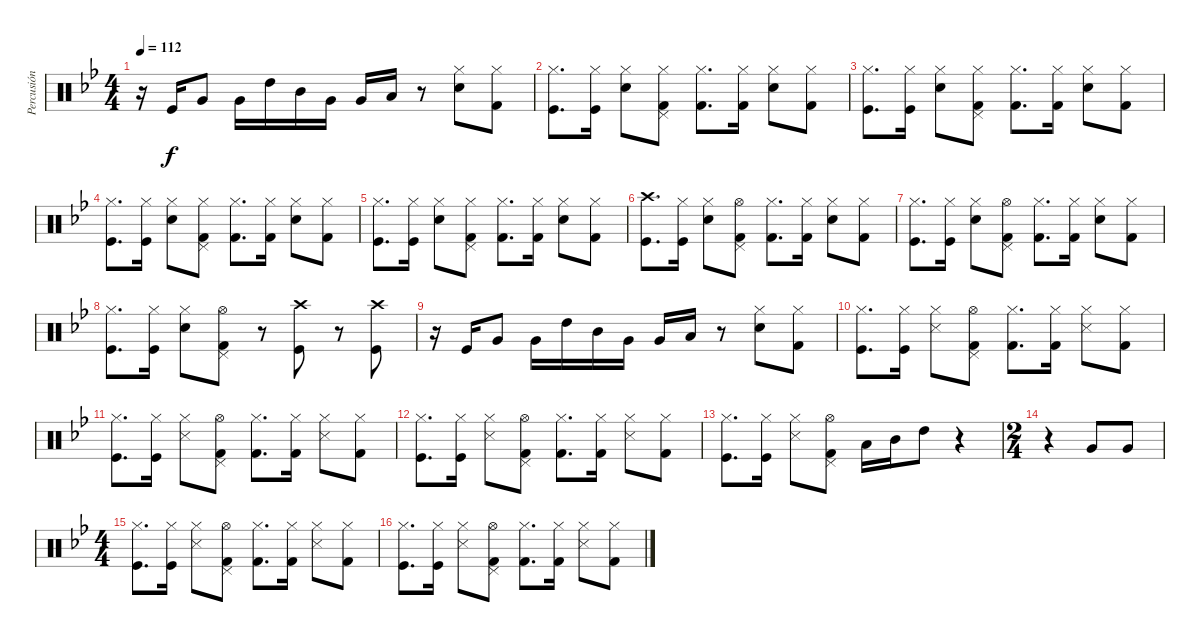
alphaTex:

\track ("Percusión" "Percusión") {instrument percussion}
\staff {score}
\articulation defaults
\ts (4 4)
\tempo 112
\clef neutral
\ks bb
r.16{dy f} "Kick (hit)".16 "Very Low Tom (hit)".8 "Very Low Tom (hit)".16 "High Tom (hit)".16 "Mid Tom (hit)".16 "Very Low Tom (hit)".16 "Very Low Tom (hit)".16 "Low Floor Tom (hit)".16 r.8 ("Snare (hit) 2" "Hi-Hat (closed)").8 ("Hi-Hat (closed)" "Kick (hit) 2").8 |
("Hi-Hat (closed)" "Kick (hit)").8{d} ("Kick (hit)" "Hi-Hat (closed)").16 ("Hi-Hat (closed)" "Snare (hit) 2").8 ("Hi-Hat (closed)" "Kick (hit) 2" "Pedal Hi-Hat (hit)").8 ("Kick (hit) 2" "Hi-Hat (closed)").8{d} ("Kick (hit) 2" "Hi-Hat (closed)").16 ("Snare (hit) 2" "Hi-Hat (closed)").8 ("Hi-Hat (closed)" "Kick (hit) 2").8 |
("Hi-Hat (closed)" "Kick (hit)").8{d} ("Kick (hit)" "Hi-Hat (closed)").16 ("Hi-Hat (closed)" "Snare (hit) 2").8 ("Hi-Hat (closed)" "Kick (hit) 2" "Pedal Hi-Hat (hit)").8 ("Kick (hit) 2" "Hi-Hat (closed)").8{d} ("Kick (hit) 2" "Hi-Hat (closed)").16 ("Snare (hit) 2" "Hi-Hat (closed)").8 ("Hi-Hat (closed)" "Kick (hit) 2").8 |
("Hi-Hat (closed)" "Kick (hit)").8{d} ("Kick (hit)" "Hi-Hat (closed)").16 ("Hi-Hat (closed)" "Snare (hit) 2").8 ("Hi-Hat (closed)" "Kick (hit) 2" "Pedal Hi-Hat (hit)").8 ("Kick (hit) 2" "Hi-Hat (closed)").8{d} ("Kick (hit) 2" "Hi-Hat (closed)").16 ("Snare (hit) 2" "Hi-Hat (closed)").8 ("Hi-Hat (closed)" "Kick (hit) 2").8 |
("Hi-Hat (closed)" "Kick (hit)").8{d} ("Kick (hit)" "Hi-Hat (closed)").16 ("Hi-Hat (closed)" "Snare (hit) 2").8 ("Hi-Hat (closed)" "Kick (hit) 2" "Pedal Hi-Hat (hit)").8 ("Kick (hit) 2" "Hi-Hat (closed)").8{d} ("Kick (hit) 2" "Hi-Hat (closed)").16 ("Snare (hit) 2" "Hi-Hat (closed)").8 ("Hi-Hat (closed)" "Kick (hit) 2").8 |
("Crash high (hit)" "Kick (hit)").8{d} ("Kick (hit)" "Hi-Hat (closed)").16 ("Hi-Hat (closed)" "Snare (hit) 2").8 ("Kick (hit) 2" "Pedal Hi-Hat (hit)" "Hi-Hat (open)").8 ("Kick (hit) 2" "Hi-Hat (closed)").8{d} ("Kick (hit) 2" "Hi-Hat (closed)").16 ("Snare (hit) 2" "Hi-Hat (closed)").8 ("Hi-Hat (closed)" "Kick (hit) 2").8 |
("Hi-Hat (closed)" "Kick (hit)").8{d} ("Kick (hit)" "Hi-Hat (closed)").16 ("Hi-Hat (closed)" "Snare (hit) 2").8 ("Kick (hit) 2" "Pedal Hi-Hat (hit)" "Hi-Hat (open)").8 ("Kick (hit) 2" "Hi-Hat (closed)").8{d} ("Kick (hit) 2" "Hi-Hat (closed)").16 ("Snare (hit) 2" "Hi-Hat (closed)").8 ("Hi-Hat (closed)" "Kick (hit) 2").8 |
("Hi-Hat (closed)" "Kick (hit)").8{d} ("Kick (hit)" "Hi-Hat (closed)").16 ("Hi-Hat (closed)" "Snare (hit) 2").8 ("Kick (hit) 2" "Pedal Hi-Hat (hit)" "Hi-Hat (open)").8 r.8 ("Kick (hit)" "Crash high (hit)").8 r.8 ("Crash high (hit)" "Kick (hit)").8 |
r.16 "Kick (hit)".16 "Very Low Tom (hit)".8 "Very Low Tom (hit)".16 "High Tom (hit)".16 "Mid Tom (hit)".16 "Very Low Tom (hit)".16 "Very Low Tom (hit)".16 "Low Floor Tom (hit)".16 r.8 ("Snare (hit) 2" "Hi-Hat (closed)").8 ("Hi-Hat (closed)" "Kick (hit) 2").8 |
("Hi-Hat (closed)" "Kick (hit)").8{d} ("Kick (hit)" "Hi-Hat (closed)").16 ("Hi-Hat (closed)" "Snare (side stick) 3").8 ("Kick (hit) 2" "Pedal Hi-Hat (hit)" "Hi-Hat (open)").8 ("Kick (hit) 2" "Hi-Hat (closed)").8{d} ("Kick (hit) 2" "Hi-Hat (closed)").16 ("Snare (side stick) 3" "Hi-Hat (closed)").8 ("Hi-Hat (closed)" "Kick (hit) 2").8 |
("Hi-Hat (closed)" "Kick (hit)").8{d} ("Kick (hit)" "Hi-Hat (closed)").16 ("Hi-Hat (closed)" "Snare (side stick) 3").8 ("Kick (hit) 2" "Pedal Hi-Hat (hit)" "Hi-Hat (open)").8 ("Kick (hit) 2" "Hi-Hat (closed)").8{d} ("Kick (hit) 2" "Hi-Hat (closed)").16 ("Snare (side stick) 3" "Hi-Hat (closed)").8 ("Hi-Hat (closed)" "Kick (hit) 2").8 |
("Hi-Hat (closed)" "Kick (hit)").8{d} ("Kick (hit)" "Hi-Hat (closed)").16 ("Hi-Hat (closed)" "Snare (side stick) 3").8 ("Kick (hit) 2" "Pedal Hi-Hat (hit)" "Hi-Hat (open)").8 ("Kick (hit) 2" "Hi-Hat (closed)").8{d} ("Kick (hit) 2" "Hi-Hat (closed)").16 ("Snare (side stick) 3" "Hi-Hat (closed)").8 ("Hi-Hat (closed)" "Kick (hit) 2").8 |
("Hi-Hat (closed)" "Kick (hit)").8{d} ("Kick (hit)" "Hi-Hat (closed)").16 ("Hi-Hat (closed)" "Snare (side stick) 3").8 ("Kick (hit) 2" "Pedal Hi-Hat (hit)" "Hi-Hat (open)").8 "Low Tom (hit)".16 "Mid Tom (hit)".16 "High Tom (hit)".8 r.4 |
\ts (2 4)
r.4 "Very Low Tom (hit)".8 "Very Low Tom (hit)".8 |
\ts (4 4)
("Hi-Hat (closed)" "Kick (hit)").8{d} ("Kick (hit)" "Hi-Hat (closed)").16 ("Hi-Hat (closed)" "Snare (side stick) 3").8 ("Kick (hit) 2" "Pedal Hi-Hat (hit)" "Hi-Hat (open)").8 ("Kick (hit) 2" "Hi-Hat (closed)").8{d} ("Kick (hit) 2" "Hi-Hat (closed)").16 ("Snare (side stick) 3" "Hi-Hat (closed)").8 ("Hi-Hat (closed)" "Kick (hit) 2").8 |
("Hi-Hat (closed)" "Kick (hit)").8{d} ("Kick (hit)" "Hi-Hat (closed)").16 ("Hi-Hat (closed)" "Snare (side stick) 3").8 ("Kick (hit) 2" "Pedal Hi-Hat (hit)" "Hi-Hat (open)").8 ("Kick (hit) 2" "Hi-Hat (closed)").8{d} ("Kick (hit) 2" "Hi-Hat (closed)").16 ("Snare (side stick) 3" "Hi-Hat (closed)").8 ("Hi-Hat (closed)" "Kick (hit) 2").8
